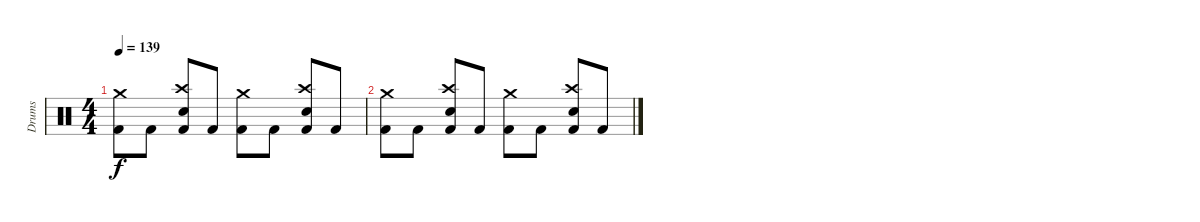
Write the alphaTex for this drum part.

\track ("Drums" "Drums") {instrument percussion}
\staff {score}
\articulation defaults
\ts (4 4)
\tempo 139
\clef neutral
\ks c
("Crash medium (hit)" "Kick (hit) 2").8{dy f} "Kick (hit) 2".8 ("Crash high (hit)" "Electric Snare (hit)" "Kick (hit) 2").8 "Kick (hit) 2".8 ("Crash medium (hit)" "Kick (hit) 2").8 "Kick (hit) 2".8 ("Crash high (hit)" "Electric Snare (hit)" "Kick (hit) 2").8 "Kick (hit) 2".8 |
("Crash medium (hit)" "Kick (hit) 2").8 "Kick (hit) 2".8 ("Crash high (hit)" "Electric Snare (hit)" "Kick (hit) 2").8 "Kick (hit) 2".8 ("Crash medium (hit)" "Kick (hit) 2").8 "Kick (hit) 2".8 ("Crash high (hit)" "Electric Snare (hit)" "Kick (hit) 2").8 "Kick (hit) 2".8
